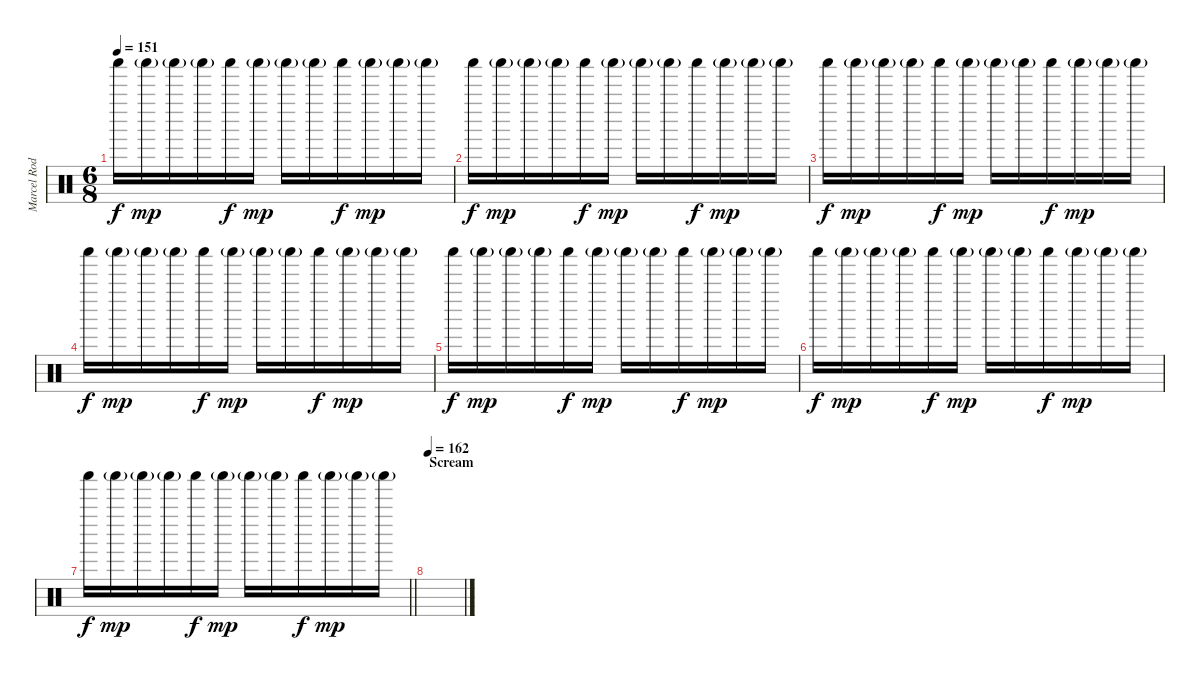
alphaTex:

\track ("Marcel Rodriguez-Lopez" "Marcel Rod") {instrument percussion}
\staff {score}
\articulation defaults
\ts (6 8)
\tempo 151
\clef neutral
\ks c "Shaker (hit)".16{dy f} "Shaker (hit)"{g}.16{dy mp} "Shaker (hit)"{g}.16 "Shaker (hit)"{g}.16 "Shaker (hit)".16{dy f} "Shaker (hit)"{g}.16{dy mp} "Shaker (hit)"{g}.16 "Shaker (hit)"{g}.16 "Shaker (hit)".16{dy f} "Shaker (hit)"{g}.16{dy mp} "Shaker (hit)"{g}.16 "Shaker (hit)"{g}.16
|
"Shaker (hit)".16{dy f} "Shaker (hit)"{g}.16{dy mp} "Shaker (hit)"{g}.16 "Shaker (hit)"{g}.16 "Shaker (hit)".16{dy f} "Shaker (hit)"{g}.16{dy mp} "Shaker (hit)"{g}.16 "Shaker (hit)"{g}.16 "Shaker (hit)".16{dy f} "Shaker (hit)"{g}.16{dy mp} "Shaker (hit)"{g}.16 "Shaker (hit)"{g}.16 |
"Shaker (hit)".16{dy f} "Shaker (hit)"{g}.16{dy mp} "Shaker (hit)"{g}.16 "Shaker (hit)"{g}.16 "Shaker (hit)".16{dy f} "Shaker (hit)"{g}.16{dy mp} "Shaker (hit)"{g}.16 "Shaker (hit)"{g}.16 "Shaker (hit)".16{dy f} "Shaker (hit)"{g}.16{dy mp} "Shaker (hit)"{g}.16 "Shaker (hit)"{g}.16 |
"Shaker (hit)".16{dy f} "Shaker (hit)"{g}.16{dy mp} "Shaker (hit)"{g}.16 "Shaker (hit)"{g}.16 "Shaker (hit)".16{dy f} "Shaker (hit)"{g}.16{dy mp} "Shaker (hit)"{g}.16 "Shaker (hit)"{g}.16 "Shaker (hit)".16{dy f} "Shaker (hit)"{g}.16{dy mp} "Shaker (hit)"{g}.16 "Shaker (hit)"{g}.16 |
"Shaker (hit)".16{dy f} "Shaker (hit)"{g}.16{dy mp} "Shaker (hit)"{g}.16 "Shaker (hit)"{g}.16 "Shaker (hit)".16{dy f} "Shaker (hit)"{g}.16{dy mp} "Shaker (hit)"{g}.16 "Shaker (hit)"{g}.16 "Shaker (hit)".16{dy f} "Shaker (hit)"{g}.16{dy mp} "Shaker (hit)"{g}.16 "Shaker (hit)"{g}.16 |
"Shaker (hit)".16{dy f} "Shaker (hit)"{g}.16{dy mp} "Shaker (hit)"{g}.16 "Shaker (hit)"{g}.16 "Shaker (hit)".16{dy f} "Shaker (hit)"{g}.16{dy mp} "Shaker (hit)"{g}.16 "Shaker (hit)"{g}.16 "Shaker (hit)".16{dy f} "Shaker (hit)"{g}.16{dy mp} "Shaker (hit)"{g}.16 "Shaker (hit)"{g}.16 |
\barLineRight lightlight "Shaker (hit)".16{dy f} "Shaker (hit)"{g}.16{dy mp} "Shaker (hit)"{g}.16 "Shaker (hit)"{g}.16 "Shaker (hit)".16{dy f} "Shaker (hit)"{g}.16{dy mp} "Shaker (hit)"{g}.16 "Shaker (hit)"{g}.16 "Shaker (hit)".16{dy f} "Shaker (hit)"{g}.16{dy mp} "Shaker (hit)"{g}.16 "Shaker (hit)"{g}.16
|
\section ("" "Scream")
\tempo 162
